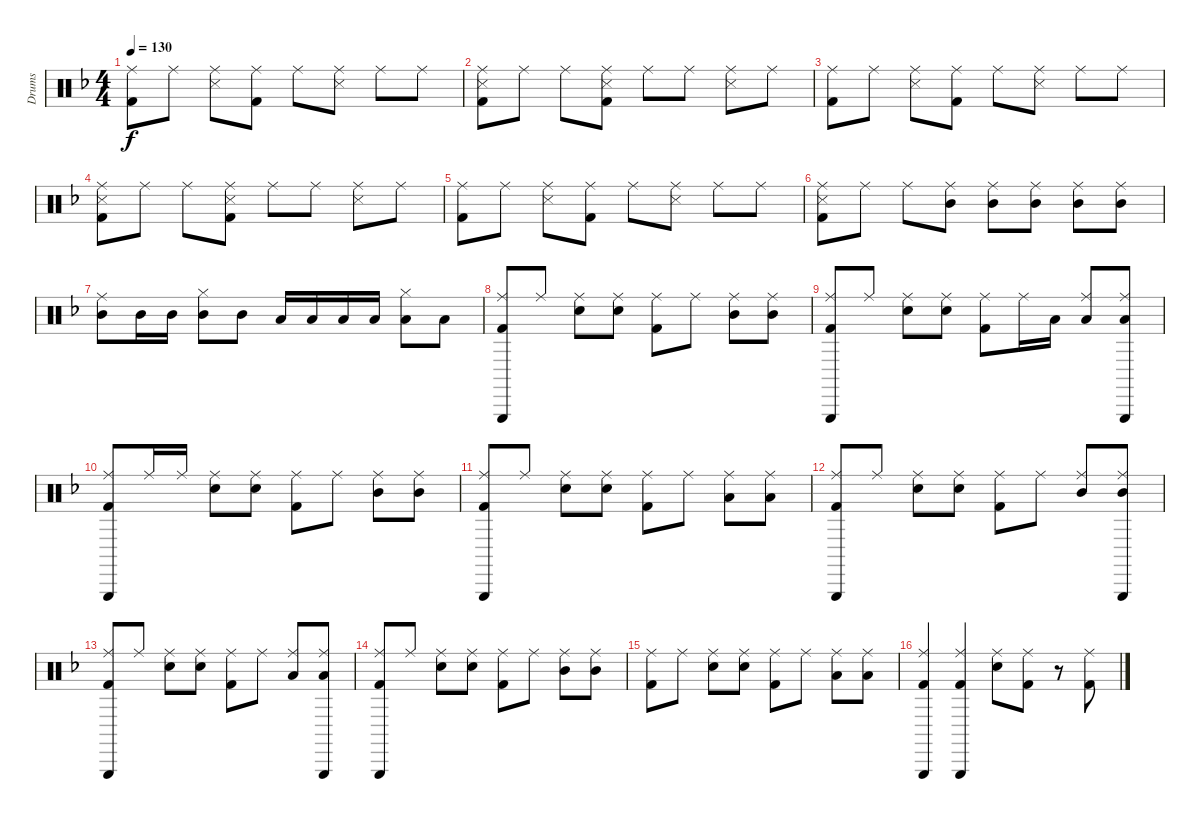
\track ("Drums" "Drums") {instrument percussion}
\staff {score}
\articulation defaults
\ts (4 4)
\tempo 130
\clef neutral
\ks f
("Ride (middle)" "Kick (hit) 2").8{dy f} "Ride (middle)".8 ("Ride (middle)" "Snare (side stick) 3").8 ("Ride (middle)" "Kick (hit) 2").8 "Ride (middle)".8 ("Ride (middle)" "Snare (side stick) 3").8 "Ride (middle)".8 "Ride (middle)".8 |
("Ride (middle)" "Snare (side stick) 3" "Kick (hit) 2").8 "Ride (middle)".8 "Ride (middle)".8 ("Ride (middle)" "Snare (side stick) 3" "Kick (hit) 2").8 "Ride (middle)".8 "Ride (middle)".8 ("Ride (middle)" "Snare (side stick) 3").8 "Ride (middle)".8 |
("Ride (middle)" "Kick (hit) 2").8 "Ride (middle)".8 ("Ride (middle)" "Snare (side stick) 3").8 ("Ride (middle)" "Kick (hit) 2").8 "Ride (middle)".8 ("Ride (middle)" "Snare (side stick) 3").8 "Ride (middle)".8 "Ride (middle)".8 |
("Ride (middle)" "Snare (side stick) 3" "Kick (hit) 2").8 "Ride (middle)".8 "Ride (middle)".8 ("Ride (middle)" "Snare (side stick) 3" "Kick (hit) 2").8 "Ride (middle)".8 "Ride (middle)".8 ("Ride (middle)" "Snare (side stick) 3").8 "Ride (middle)".8 |
("Ride (middle)" "Kick (hit) 2").8 "Ride (middle)".8 ("Ride (middle)" "Snare (side stick) 3").8 ("Ride (middle)" "Kick (hit) 2").8 "Ride (middle)".8 ("Ride (middle)" "Snare (side stick) 3").8 "Ride (middle)".8 "Ride (middle)".8 |
("Ride (middle)" "Snare (side stick) 3" "Kick (hit) 2").8 "Ride (middle)".8 "Ride (middle)".8 ("Ride (middle)" "Mid Tom (hit)").8 ("Ride (middle)" "Mid Tom (hit)").8 ("Ride (middle)" "Mid Tom (hit)").8 ("Ride (middle)" "Mid Tom (hit)").8 ("Ride (middle)" "Mid Tom (hit)").8 |
("Ride (middle)" "Mid Tom (hit)").8 "Mid Tom (hit)".16 "Mid Tom (hit)".16 ("Hi-Hat (closed)" "Mid Tom (hit)").8 "Mid Tom (hit)".8 "Low Tom (hit)".16 "Low Tom (hit)".16 "Low Tom (hit)".16 "Low Tom (hit)".16 ("Hi-Hat (closed)" "Low Tom (hit)").8 "Low Tom (hit)".8 |
("Triangle (hit)" "Ride (middle)" "Kick (hit) 2").8 "Ride (middle)".8 ("Ride (middle)" "Snare (hit) 2").8 ("Ride (middle)" "Snare (hit) 2").8 ("Ride (middle)" "Kick (hit) 2").8 "Ride (middle)".8 ("Ride (middle)" "Mid Tom (hit)").8 ("Ride (middle)" "Mid Tom (hit)").8 |
("Triangle (hit)" "Ride (middle)" "Kick (hit) 2").8 "Ride (middle)".8 ("Ride (middle)" "Snare (hit) 2").8 ("Ride (middle)" "Snare (hit) 2").8 ("Ride (middle)" "Kick (hit) 2").8 "Ride (middle)".16 "Low Tom (hit)".16 ("Ride (middle)" "Low Tom (hit)").8 ("Triangle (hit)" "Ride (middle)" "Low Tom (hit)").8 |
("Triangle (hit)" "Ride (middle)" "Kick (hit) 2").8 "Ride (middle)".16 "Ride (middle)".16 ("Ride (middle)" "Snare (hit) 2").8 ("Ride (middle)" "Snare (hit) 2").8 ("Ride (middle)" "Kick (hit) 2").8 "Ride (middle)".8 ("Ride (middle)" "Mid Tom (hit)").8 ("Ride (middle)" "Mid Tom (hit)").8 |
("Triangle (hit)" "Ride (middle)" "Kick (hit) 2").8 "Ride (middle)".8 ("Ride (middle)" "Snare (hit) 2").8 ("Ride (middle)" "Snare (hit) 2").8 ("Ride (middle)" "Kick (hit) 2").8 "Ride (middle)".8 ("Ride (middle)" "Low Tom (hit)").8 ("Ride (middle)" "Low Tom (hit)").8 |
("Triangle (hit)" "Ride (middle)" "Kick (hit) 2").8 "Ride (middle)".8 ("Ride (middle)" "Snare (hit) 2").8 ("Ride (middle)" "Snare (hit) 2").8 ("Ride (middle)" "Kick (hit) 2").8 "Ride (middle)".8 ("Ride (middle)" "Mid Tom (hit)").8 ("Triangle (hit)" "Ride (middle)" "Mid Tom (hit)").8 |
("Triangle (hit)" "Ride (middle)" "Kick (hit) 2").8 "Ride (middle)".8 ("Ride (middle)" "Snare (hit) 2").8 ("Ride (middle)" "Snare (hit) 2").8 ("Ride (middle)" "Kick (hit) 2").8 "Ride (middle)".8 ("Ride (middle)" "Low Tom (hit)").8 ("Triangle (hit)" "Ride (middle)" "Low Tom (hit)").8 |
("Triangle (hit)" "Ride (middle)" "Kick (hit) 2").8 "Ride (middle)".8 ("Ride (middle)" "Snare (hit) 2").8 ("Ride (middle)" "Snare (hit) 2").8 ("Ride (middle)" "Kick (hit) 2").8 "Ride (middle)".8 ("Ride (middle)" "Mid Tom (hit)").8 ("Ride (middle)" "Mid Tom (hit)").8 |
("Ride (middle)" "Kick (hit) 2").8 "Ride (middle)".8 ("Ride (middle)" "Snare (hit) 2").8 ("Ride (middle)" "Snare (hit) 2").8 ("Ride (middle)" "Kick (hit) 2").8 "Ride (middle)".8 ("Ride (middle)" "Low Tom (hit)").8 ("Ride (middle)" "Low Tom (hit)").8 |
("Triangle (hit)" "Ride (middle)" "Kick (hit) 2").4 ("Triangle (hit)" "Ride (middle)" "Kick (hit) 2").4 ("Ride (middle)" "Snare (hit) 2").8 ("Ride (middle)" "Kick (hit) 2").8 r.8 ("Ride (middle)" "Kick (hit) 2").8
